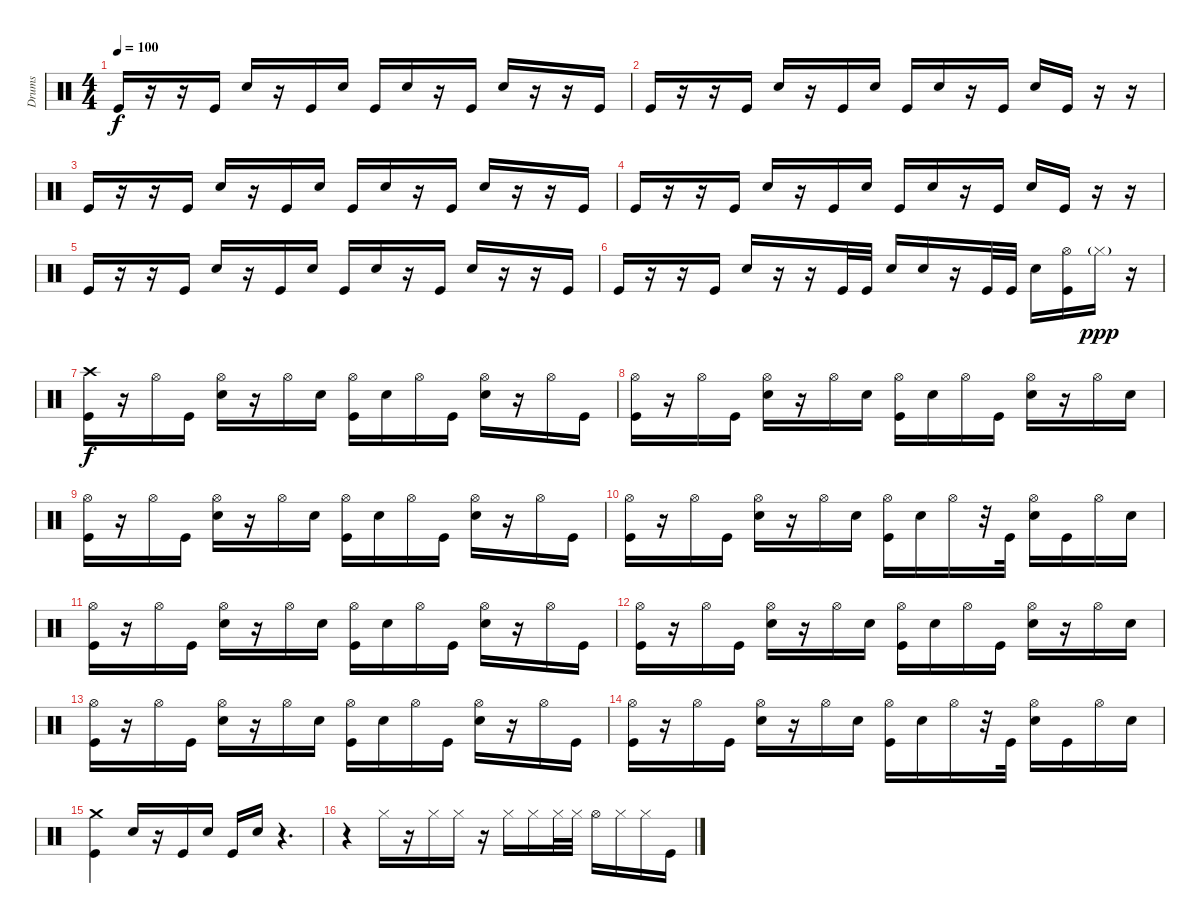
\track ("Drums" "Drums") {instrument percussion}
\staff {score}
\articulation defaults
\ts (4 4)
\tempo 100
\clef neutral
\ks c "Kick (hit)".16{dy f}
r.16 r.16 "Kick (hit)".16 "Electric Snare (hit)".16 r.16 "Kick (hit)".16 "Electric Snare (hit)".16 "Kick (hit)".16 "Electric Snare (hit)".16 r.16 "Kick (hit)".16 "Electric Snare (hit)".16 r.16 r.16 "Kick (hit)".16 |
"Kick (hit)".16 r.16 r.16 "Kick (hit)".16 "Electric Snare (hit)".16 r.16 "Kick (hit)".16 "Electric Snare (hit)".16 "Kick (hit)".16 "Electric Snare (hit)".16 r.16 "Kick (hit)".16 "Electric Snare (hit)".16 "Kick (hit)".16 r.16 r.16 |
"Kick (hit)".16 r.16 r.16 "Kick (hit)".16 "Electric Snare (hit)".16 r.16 "Kick (hit)".16 "Electric Snare (hit)".16 "Kick (hit)".16 "Electric Snare (hit)".16 r.16 "Kick (hit)".16 "Electric Snare (hit)".16 r.16 r.16 "Kick (hit)".16 |
"Kick (hit)".16 r.16 r.16 "Kick (hit)".16 "Electric Snare (hit)".16 r.16 "Kick (hit)".16 "Electric Snare (hit)".16 "Kick (hit)".16 "Electric Snare (hit)".16 r.16 "Kick (hit)".16 "Electric Snare (hit)".16 "Kick (hit)".16 r.16 r.16 |
"Kick (hit)".16 r.16 r.16 "Kick (hit)".16 "Electric Snare (hit)".16 r.16 "Kick (hit)".16 "Electric Snare (hit)".16 "Kick (hit)".16 "Electric Snare (hit)".16 r.16 "Kick (hit)".16 "Electric Snare (hit)".16 r.16 r.16 "Kick (hit)".16 |
"Kick (hit)".16 r.16 r.16 "Kick (hit)".16 "Electric Snare (hit)".16 r.16 r.16 "Kick (hit)".32 "Kick (hit)".32 "Electric Snare (hit)".16 "Electric Snare (hit)".16 r.16 "Kick (hit)".32 "Kick (hit)".32 "Electric Snare (hit)".16 ("Hi-Hat (open)" "Kick (hit)").16 "Hi-Hat (closed)"{g}.16{dy ppp} r.16 |
("Crash high (hit)" "Kick (hit)").16{dy f} r.16 "Hi-Hat (open)".16 "Kick (hit)".16 ("Hi-Hat (open)" "Electric Snare (hit)").16 r.16 "Hi-Hat (open)".16 "Electric Snare (hit)".16 ("Hi-Hat (open)" "Kick (hit)").16 "Electric Snare (hit)".16 "Hi-Hat (open)".16 "Kick (hit)".16 ("Hi-Hat (open)" "Electric Snare (hit)").16 r.16 "Hi-Hat (open)".16 "Kick (hit)".16 |
("Hi-Hat (open)" "Kick (hit)").16 r.16 "Hi-Hat (open)".16 "Kick (hit)".16 ("Hi-Hat (open)" "Electric Snare (hit)").16 r.16 "Hi-Hat (open)".16 "Electric Snare (hit)".16 ("Hi-Hat (open)" "Kick (hit)").16 "Electric Snare (hit)".16 "Hi-Hat (open)".16 "Kick (hit)".16 ("Hi-Hat (open)" "Electric Snare (hit)").16 r.16 "Hi-Hat (open)".16 "Electric Snare (hit)".16 |
("Hi-Hat (open)" "Kick (hit)").16 r.16 "Hi-Hat (open)".16 "Kick (hit)".16 ("Hi-Hat (open)" "Electric Snare (hit)").16 r.16 "Hi-Hat (open)".16 "Electric Snare (hit)".16 ("Hi-Hat (open)" "Kick (hit)").16 "Electric Snare (hit)".16 "Hi-Hat (open)".16 "Kick (hit)".16 ("Hi-Hat (open)" "Electric Snare (hit)").16 r.16 "Hi-Hat (open)".16 "Kick (hit)".16 |
("Hi-Hat (open)" "Kick (hit)").16 r.16 "Hi-Hat (open)".16 "Kick (hit)".16 ("Hi-Hat (open)" "Electric Snare (hit)").16 r.16 "Hi-Hat (open)".16 "Electric Snare (hit)".16 ("Hi-Hat (open)" "Kick (hit)").16 "Electric Snare (hit)".16 "Hi-Hat (open)".16 r.32 "Kick (hit)".32 ("Hi-Hat (open)" "Electric Snare (hit)").16 "Kick (hit)".16 "Hi-Hat (open)".16 "Electric Snare (hit)".16 |
("Hi-Hat (open)" "Kick (hit)").16 r.16 "Hi-Hat (open)".16 "Kick (hit)".16 ("Hi-Hat (open)" "Electric Snare (hit)").16 r.16 "Hi-Hat (open)".16 "Electric Snare (hit)".16 ("Hi-Hat (open)" "Kick (hit)").16 "Electric Snare (hit)".16 "Hi-Hat (open)".16 "Kick (hit)".16 ("Hi-Hat (open)" "Electric Snare (hit)").16 r.16 "Hi-Hat (open)".16 "Kick (hit)".16 |
("Hi-Hat (open)" "Kick (hit)").16 r.16 "Hi-Hat (open)".16 "Kick (hit)".16 ("Hi-Hat (open)" "Electric Snare (hit)").16 r.16 "Hi-Hat (open)".16 "Electric Snare (hit)".16 ("Hi-Hat (open)" "Kick (hit)").16 "Electric Snare (hit)".16 "Hi-Hat (open)".16 "Kick (hit)".16 ("Hi-Hat (open)" "Electric Snare (hit)").16 r.16 "Hi-Hat (open)".16 "Electric Snare (hit)".16 |
("Hi-Hat (open)" "Kick (hit)").16 r.16 "Hi-Hat (open)".16 "Kick (hit)".16 ("Hi-Hat (open)" "Electric Snare (hit)").16 r.16 "Hi-Hat (open)".16 "Electric Snare (hit)".16 ("Hi-Hat (open)" "Kick (hit)").16 "Electric Snare (hit)".16 "Hi-Hat (open)".16 "Kick (hit)".16 ("Hi-Hat (open)" "Electric Snare (hit)").16 r.16 "Hi-Hat (open)".16 "Kick (hit)".16 |
("Hi-Hat (open)" "Kick (hit)").16 r.16 "Hi-Hat (open)".16 "Kick (hit)".16 ("Hi-Hat (open)" "Electric Snare (hit)").16 r.16 "Hi-Hat (open)".16 "Electric Snare (hit)".16 ("Hi-Hat (open)" "Kick (hit)").16 "Electric Snare (hit)".16 "Hi-Hat (open)".16 r.32 "Kick (hit)".32 ("Hi-Hat (open)" "Electric Snare (hit)").16 "Kick (hit)".16 "Hi-Hat (open)".16 "Electric Snare (hit)".16 |
("Crash medium (hit)" "Kick (hit)").4 "Electric Snare (hit)".16 r.16 "Kick (hit)".16 "Electric Snare (hit)".16 "Kick (hit)".16 "Electric Snare (hit)".16 r.4{d} |
r.4 "Hi-Hat (closed)".16 r.16 "Hi-Hat (closed)".16 "Hi-Hat (closed)".16 r.16 "Hi-Hat (closed)".16 "Hi-Hat (closed)".16 "Hi-Hat (closed)".32 "Hi-Hat (closed)".32 "Hi-Hat (open)".16 "Hi-Hat (closed)".16 "Hi-Hat (closed)".16 "Kick (hit)".16
